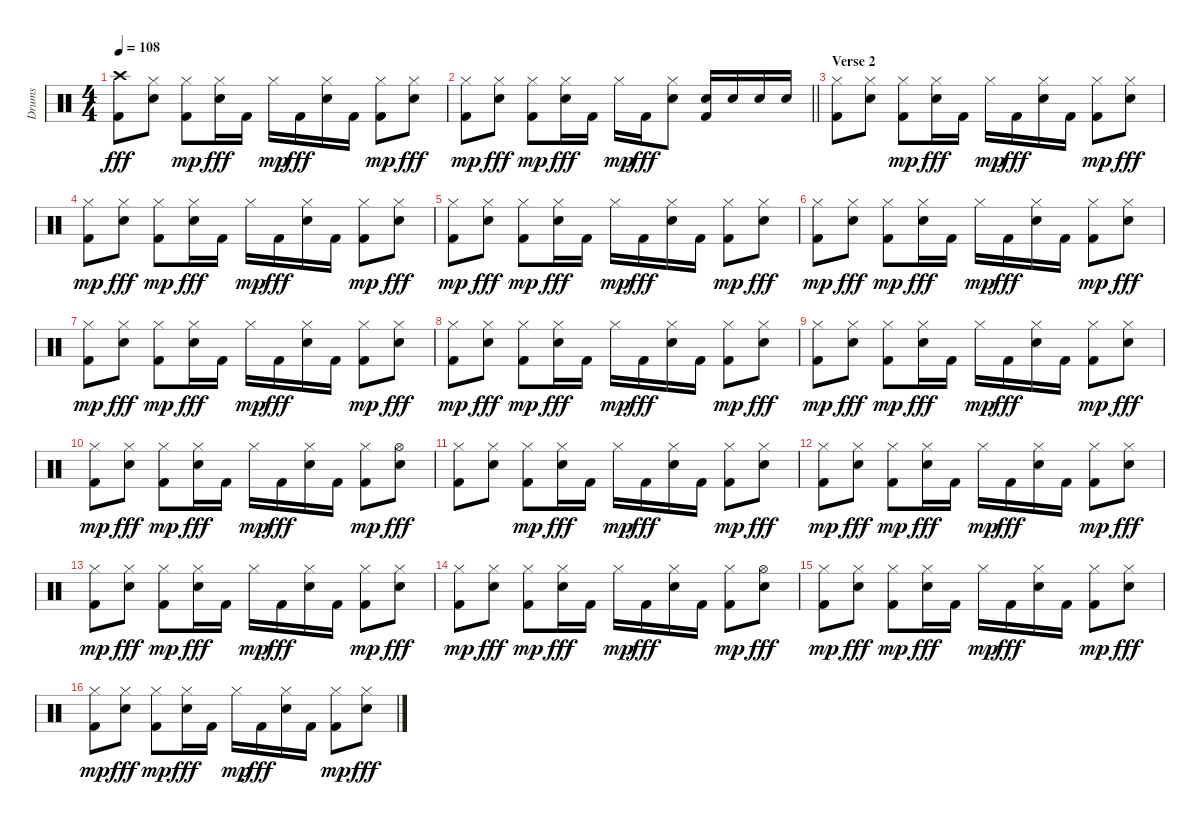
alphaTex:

\track ("Drums" "Drums") {instrument percussion}
\staff {score}
\articulation defaults
\ts (4 4)
\tempo 108
\clef neutral
\ks c
("Kick (hit) 2" "Crash high (hit)").8{dy fff} ("Snare (hit) 2" "Hi-Hat (closed)").8 ("Kick (hit) 2" "Hi-Hat (closed)").8{dy mp} ("Snare (hit) 2" "Hi-Hat (closed)").16{dy fff} "Kick (hit) 2".16 "Hi-Hat (closed)".16{dy mp} "Kick (hit) 2".16{dy fff} ("Snare (hit) 2" "Hi-Hat (closed)").16 "Kick (hit) 2".16 ("Kick (hit) 2" "Hi-Hat (closed)").8{dy mp} ("Snare (hit) 2" "Hi-Hat (closed)").8{dy fff} |
\barLineRight lightlight
("Kick (hit) 2" "Hi-Hat (closed)").8{dy mp} ("Snare (hit) 2" "Hi-Hat (closed)").8{dy fff} ("Kick (hit) 2" "Hi-Hat (closed)").8{dy mp} ("Snare (hit) 2" "Hi-Hat (closed)").16{dy fff} "Kick (hit) 2".16 "Hi-Hat (closed)".16{dy mp} "Kick (hit) 2".16{dy fff} ("Snare (hit) 2" "Hi-Hat (closed)").8 ("Snare (hit) 2" "Kick (hit) 2").16 "Snare (hit) 2".16 "Snare (hit) 2".16 "Snare (hit) 2".16 |
\section ("" "Verse 2")
("Kick (hit) 2" "Hi-Hat (closed)").8 ("Snare (hit) 2" "Hi-Hat (closed)").8 ("Kick (hit) 2" "Hi-Hat (closed)").8{dy mp} ("Snare (hit) 2" "Hi-Hat (closed)").16{dy fff} "Kick (hit) 2".16 "Hi-Hat (closed)".16{dy mp} "Kick (hit) 2".16{dy fff} ("Snare (hit) 2" "Hi-Hat (closed)").16 "Kick (hit) 2".16 ("Kick (hit) 2" "Hi-Hat (closed)").8{dy mp} ("Snare (hit) 2" "Hi-Hat (closed)").8{dy fff} |
("Kick (hit) 2" "Hi-Hat (closed)").8{dy mp} ("Snare (hit) 2" "Hi-Hat (closed)").8{dy fff} ("Kick (hit) 2" "Hi-Hat (closed)").8{dy mp} ("Snare (hit) 2" "Hi-Hat (closed)").16{dy fff} "Kick (hit) 2".16 "Hi-Hat (closed)".16{dy mp} "Kick (hit) 2".16{dy fff} ("Snare (hit) 2" "Hi-Hat (closed)").16 "Kick (hit) 2".16 ("Kick (hit) 2" "Hi-Hat (closed)").8{dy mp} ("Snare (hit) 2" "Hi-Hat (closed)").8{dy fff} |
("Kick (hit) 2" "Hi-Hat (closed)").8{dy mp} ("Snare (hit) 2" "Hi-Hat (closed)").8{dy fff} ("Kick (hit) 2" "Hi-Hat (closed)").8{dy mp} ("Snare (hit) 2" "Hi-Hat (closed)").16{dy fff} "Kick (hit) 2".16 "Hi-Hat (closed)".16{dy mp} "Kick (hit) 2".16{dy fff} ("Snare (hit) 2" "Hi-Hat (closed)").16 "Kick (hit) 2".16 ("Kick (hit) 2" "Hi-Hat (closed)").8{dy mp} ("Snare (hit) 2" "Hi-Hat (closed)").8{dy fff} |
("Kick (hit) 2" "Hi-Hat (closed)").8{dy mp} ("Snare (hit) 2" "Hi-Hat (closed)").8{dy fff} ("Kick (hit) 2" "Hi-Hat (closed)").8{dy mp} ("Snare (hit) 2" "Hi-Hat (closed)").16{dy fff} "Kick (hit) 2".16 "Hi-Hat (closed)".16{dy mp} "Kick (hit) 2".16{dy fff} ("Snare (hit) 2" "Hi-Hat (closed)").16 "Kick (hit) 2".16 ("Kick (hit) 2" "Hi-Hat (closed)").8{dy mp} ("Snare (hit) 2" "Hi-Hat (closed)").8{dy fff} |
("Kick (hit) 2" "Hi-Hat (closed)").8{dy mp} ("Snare (hit) 2" "Hi-Hat (closed)").8{dy fff} ("Kick (hit) 2" "Hi-Hat (closed)").8{dy mp} ("Snare (hit) 2" "Hi-Hat (closed)").16{dy fff} "Kick (hit) 2".16 "Hi-Hat (closed)".16{dy mp} "Kick (hit) 2".16{dy fff} ("Snare (hit) 2" "Hi-Hat (closed)").16 "Kick (hit) 2".16 ("Kick (hit) 2" "Hi-Hat (closed)").8{dy mp} ("Snare (hit) 2" "Hi-Hat (closed)").8{dy fff} |
("Kick (hit) 2" "Hi-Hat (closed)").8{dy mp} ("Snare (hit) 2" "Hi-Hat (closed)").8{dy fff} ("Kick (hit) 2" "Hi-Hat (closed)").8{dy mp} ("Snare (hit) 2" "Hi-Hat (closed)").16{dy fff} "Kick (hit) 2".16 "Hi-Hat (closed)".16{dy mp} "Kick (hit) 2".16{dy fff} ("Snare (hit) 2" "Hi-Hat (closed)").16 "Kick (hit) 2".16 ("Kick (hit) 2" "Hi-Hat (closed)").8{dy mp} ("Snare (hit) 2" "Hi-Hat (closed)").8{dy fff} |
("Kick (hit) 2" "Hi-Hat (closed)").8{dy mp} ("Snare (hit) 2" "Hi-Hat (closed)").8{dy fff} ("Kick (hit) 2" "Hi-Hat (closed)").8{dy mp} ("Snare (hit) 2" "Hi-Hat (closed)").16{dy fff} "Kick (hit) 2".16 "Hi-Hat (closed)".16{dy mp} "Kick (hit) 2".16{dy fff} ("Snare (hit) 2" "Hi-Hat (closed)").16 "Kick (hit) 2".16 ("Kick (hit) 2" "Hi-Hat (closed)").8{dy mp} ("Snare (hit) 2" "Hi-Hat (closed)").8{dy fff} |
("Kick (hit) 2" "Hi-Hat (closed)").8{dy mp} ("Snare (hit) 2" "Hi-Hat (closed)").8{dy fff} ("Kick (hit) 2" "Hi-Hat (closed)").8{dy mp} ("Snare (hit) 2" "Hi-Hat (closed)").16{dy fff} "Kick (hit) 2".16 "Hi-Hat (closed)".16{dy mp} "Kick (hit) 2".16{dy fff} ("Snare (hit) 2" "Hi-Hat (closed)").16 "Kick (hit) 2".16 ("Kick (hit) 2" "Hi-Hat (closed)").8{dy mp} ("Snare (hit) 2" "Hi-Hat (open)").8{dy fff} |
("Kick (hit) 2" "Hi-Hat (closed)").8 ("Snare (hit) 2" "Hi-Hat (closed)").8 ("Kick (hit) 2" "Hi-Hat (closed)").8{dy mp} ("Snare (hit) 2" "Hi-Hat (closed)").16{dy fff} "Kick (hit) 2".16 "Hi-Hat (closed)".16{dy mp} "Kick (hit) 2".16{dy fff} ("Snare (hit) 2" "Hi-Hat (closed)").16 "Kick (hit) 2".16 ("Kick (hit) 2" "Hi-Hat (closed)").8{dy mp} ("Snare (hit) 2" "Hi-Hat (closed)").8{dy fff} |
("Kick (hit) 2" "Hi-Hat (closed)").8{dy mp} ("Snare (hit) 2" "Hi-Hat (closed)").8{dy fff} ("Kick (hit) 2" "Hi-Hat (closed)").8{dy mp} ("Snare (hit) 2" "Hi-Hat (closed)").16{dy fff} "Kick (hit) 2".16 "Hi-Hat (closed)".16{dy mp} "Kick (hit) 2".16{dy fff} ("Snare (hit) 2" "Hi-Hat (closed)").16 "Kick (hit) 2".16 ("Kick (hit) 2" "Hi-Hat (closed)").8{dy mp} ("Snare (hit) 2" "Hi-Hat (closed)").8{dy fff} |
("Kick (hit) 2" "Hi-Hat (closed)").8{dy mp} ("Snare (hit) 2" "Hi-Hat (closed)").8{dy fff} ("Kick (hit) 2" "Hi-Hat (closed)").8{dy mp} ("Snare (hit) 2" "Hi-Hat (closed)").16{dy fff} "Kick (hit) 2".16 "Hi-Hat (closed)".16{dy mp} "Kick (hit) 2".16{dy fff} ("Snare (hit) 2" "Hi-Hat (closed)").16 "Kick (hit) 2".16 ("Kick (hit) 2" "Hi-Hat (closed)").8{dy mp} ("Snare (hit) 2" "Hi-Hat (closed)").8{dy fff} |
("Kick (hit) 2" "Hi-Hat (closed)").8{dy mp} ("Snare (hit) 2" "Hi-Hat (closed)").8{dy fff} ("Kick (hit) 2" "Hi-Hat (closed)").8{dy mp} ("Snare (hit) 2" "Hi-Hat (closed)").16{dy fff} "Kick (hit) 2".16 "Hi-Hat (closed)".16{dy mp} "Kick (hit) 2".16{dy fff} ("Snare (hit) 2" "Hi-Hat (closed)").16 "Kick (hit) 2".16 ("Kick (hit) 2" "Hi-Hat (closed)").8{dy mp} ("Snare (hit) 2" "Hi-Hat (open)").8{dy fff} |
("Kick (hit) 2" "Hi-Hat (closed)").8{dy mp} ("Snare (hit) 2" "Hi-Hat (closed)").8{dy fff} ("Kick (hit) 2" "Hi-Hat (closed)").8{dy mp} ("Snare (hit) 2" "Hi-Hat (closed)").16{dy fff} "Kick (hit) 2".16 "Hi-Hat (closed)".16{dy mp} "Kick (hit) 2".16{dy fff} ("Snare (hit) 2" "Hi-Hat (closed)").16 "Kick (hit) 2".16 ("Kick (hit) 2" "Hi-Hat (closed)").8{dy mp} ("Snare (hit) 2" "Hi-Hat (closed)").8{dy fff} |
("Kick (hit) 2" "Hi-Hat (closed)").8{dy mp} ("Snare (hit) 2" "Hi-Hat (closed)").8{dy fff} ("Kick (hit) 2" "Hi-Hat (closed)").8{dy mp} ("Snare (hit) 2" "Hi-Hat (closed)").16{dy fff} "Kick (hit) 2".16 "Hi-Hat (closed)".16{dy mp} "Kick (hit) 2".16{dy fff} ("Snare (hit) 2" "Hi-Hat (closed)").16 "Kick (hit) 2".16 ("Kick (hit) 2" "Hi-Hat (closed)").8{dy mp} ("Snare (hit) 2" "Hi-Hat (closed)").8{dy fff}
